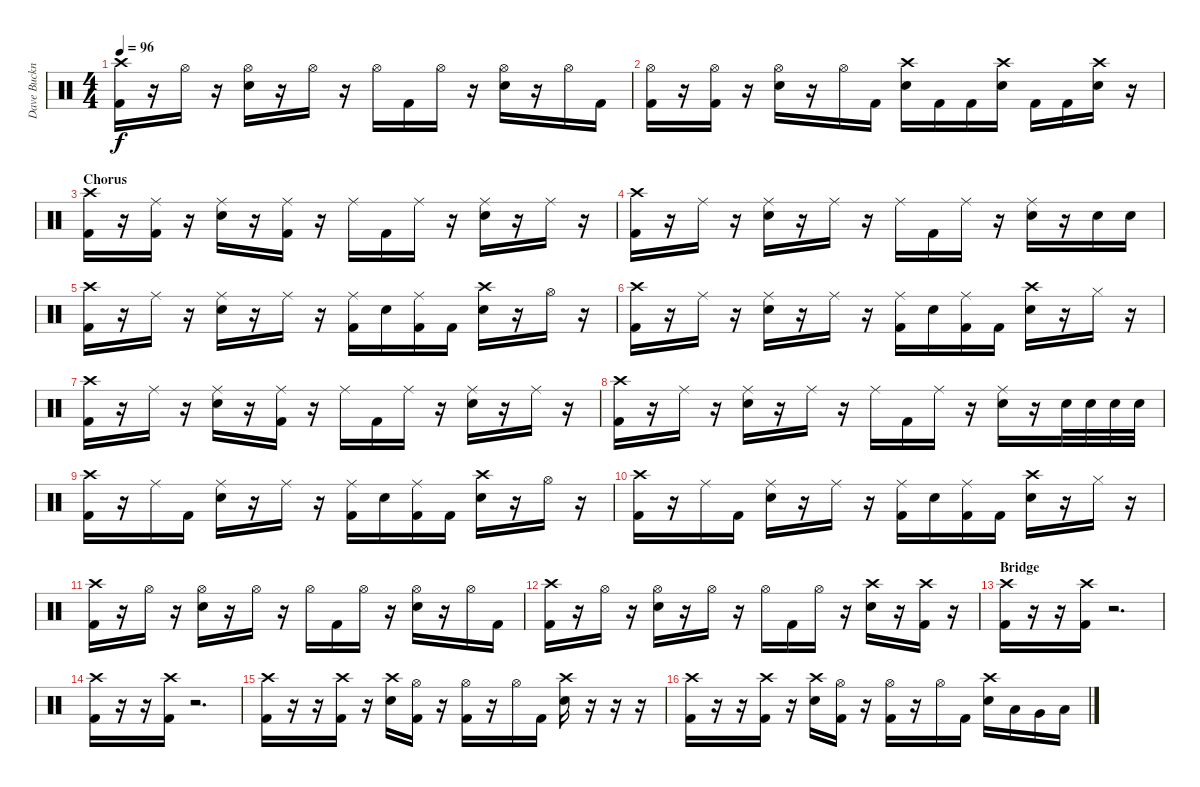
\track ("Dave Buckner" "Dave Buckn") {instrument percussion}
\staff {score}
\articulation defaults
\ts (4 4)
\tempo 96
\clef neutral
\ks c
("Crash high (hit)" "Kick (hit) 2").16{dy f} r.16 "Hi-Hat (open)".16 r.16 ("Hi-Hat (open)" "Snare (hit) 2").16 r.16 "Hi-Hat (open)".16 r.16 "Hi-Hat (open)".16 "Kick (hit) 2".16 "Hi-Hat (open)".16 r.16 ("Hi-Hat (open)" "Snare (hit) 2").16 r.16 "Hi-Hat (open)".16 "Kick (hit) 2".16 |
("Hi-Hat (open)" "Kick (hit) 2").16 r.16 ("Hi-Hat (open)" "Kick (hit) 2").16 r.16 ("Hi-Hat (open)" "Snare (hit) 2").16 r.16 "Hi-Hat (open)".16 "Kick (hit) 2".16 ("Crash high (hit)" "Snare (hit) 2").16 "Kick (hit) 2".16 "Kick (hit) 2".16 ("Crash high (hit)" "Snare (hit) 2").16 "Kick (hit) 2".16 "Kick (hit) 2".16 ("Crash high (hit)" "Snare (hit) 2").16 r.16 |
\section ("" "Chorus")
("Crash high (hit)" "Kick (hit) 2").16 r.16 ("Ride (middle)" "Kick (hit) 2").16 r.16 ("Ride (middle)" "Snare (hit) 2").16 r.16 ("Ride (middle)" "Kick (hit) 2").16 r.16 "Ride (middle)".16 "Kick (hit) 2".16 "Ride (middle)".16 r.16 ("Ride (middle)" "Snare (hit) 2").16 r.16 "Ride (middle)".16 r.16 |
("Crash high (hit)" "Kick (hit) 2").16 r.16 "Ride (middle)".16 r.16 ("Ride (middle)" "Snare (hit) 2").16 r.16 "Ride (middle)".16 r.16 "Ride (middle)".16 "Kick (hit) 2".16 "Ride (middle)".16 r.16 ("Ride (middle)" "Snare (hit) 2").16 r.16 "Snare (hit) 2".16 "Snare (hit) 2".16 |
("Crash high (hit)" "Kick (hit) 2").16 r.16 "Ride (middle)".16 r.16 ("Ride (middle)" "Snare (hit) 2").16 r.16 "Ride (middle)".16 r.16 ("Ride (middle)" "Kick (hit) 2").16 "Snare (hit) 2".16 ("Ride (middle)" "Kick (hit) 2").16 "Kick (hit) 2".16 ("Crash high (hit)" "Snare (hit) 2").16 r.16 "Hi-Hat (open)".16 r.16 |
("Crash high (hit)" "Kick (hit) 2").16 r.16 "Ride (middle)".16 r.16 ("Ride (middle)" "Snare (hit) 2").16 r.16 "Ride (middle)".16 r.16 ("Ride (middle)" "Kick (hit) 2").16 "Snare (hit) 2".16 ("Ride (middle)" "Kick (hit) 2").16 "Kick (hit) 2".16 ("Crash high (hit)" "Snare (hit) 2").16 r.16 "Hi-Hat (closed)".16 r.16 |
("Crash high (hit)" "Kick (hit) 2").16 r.16 "Ride (middle)".16 r.16 ("Ride (middle)" "Snare (hit) 2").16 r.16 ("Ride (middle)" "Kick (hit) 2").16 r.16 "Ride (middle)".16 "Kick (hit) 2".16 "Ride (middle)".16 r.16 ("Ride (middle)" "Snare (hit) 2").16 r.16 "Ride (middle)".16 r.16 |
("Crash high (hit)" "Kick (hit) 2").16 r.16 "Ride (middle)".16 r.16 ("Ride (middle)" "Snare (hit) 2").16 r.16 "Ride (middle)".16 r.16 "Ride (middle)".16 "Kick (hit) 2".16 "Ride (middle)".16 r.16 ("Ride (middle)" "Snare (hit) 2").16 r.16 "Snare (hit) 2".32 "Snare (hit) 2".32 "Snare (hit) 2".32 "Snare (hit) 2".32 |
("Crash high (hit)" "Kick (hit) 2").16 r.16 "Ride (middle)".16 "Kick (hit) 2".16 ("Ride (middle)" "Snare (hit) 2").16 r.16 "Ride (middle)".16 r.16 ("Ride (middle)" "Kick (hit) 2").16 "Snare (hit) 2".16 ("Ride (middle)" "Kick (hit) 2").16 "Kick (hit) 2".16 ("Crash high (hit)" "Snare (hit) 2").16 r.16 "Hi-Hat (open)".16 r.16 |
("Crash high (hit)" "Kick (hit) 2").16 r.16 "Ride (middle)".16 "Kick (hit) 2".16 ("Ride (middle)" "Snare (hit) 2").16 r.16 "Ride (middle)".16 r.16 ("Ride (middle)" "Kick (hit) 2").16 "Snare (hit) 2".16 ("Ride (middle)" "Kick (hit) 2").16 "Kick (hit) 2".16 ("Crash high (hit)" "Snare (hit) 2").16 r.16 "Hi-Hat (closed)".16 r.16 |
("Crash high (hit)" "Kick (hit) 2").16 r.16 "Hi-Hat (open)".16 r.16 ("Hi-Hat (open)" "Snare (hit) 2").16 r.16 "Hi-Hat (open)".16 r.16 "Hi-Hat (open)".16 "Kick (hit) 2".16 "Hi-Hat (open)".16 r.16 ("Hi-Hat (open)" "Snare (hit) 2").16 r.16 "Hi-Hat (open)".16 "Kick (hit) 2".16 |
("Crash high (hit)" "Kick (hit) 2").16 r.16 "Hi-Hat (open)".16 r.16 ("Hi-Hat (open)" "Snare (hit) 2").16 r.16 "Hi-Hat (open)".16 r.16 "Hi-Hat (open)".16 "Kick (hit) 2".16 "Hi-Hat (open)".16 r.16 ("Crash high (hit)" "Snare (hit) 2").16 r.16 ("Crash high (hit)" "Kick (hit) 2").16 r.16 |
\section ("" "Bridge")
("Crash high (hit)" "Kick (hit) 2").16 r.16 r.16 ("Crash high (hit)" "Kick (hit) 2").16 r.2{d} |
("Crash high (hit)" "Kick (hit) 2").16 r.16 r.16 ("Crash high (hit)" "Kick (hit) 2").16 r.2{d} |
("Crash high (hit)" "Kick (hit) 2").16 r.16 r.16 ("Crash high (hit)" "Kick (hit) 2").16 r.16 ("Crash high (hit)" "Snare (hit) 2").16 ("Hi-Hat (open)" "Kick (hit) 2").16 r.16 ("Hi-Hat (open)" "Kick (hit) 2").16 r.16 "Hi-Hat (open)".16 "Kick (hit) 2".16 ("Crash high (hit)" "Snare (hit) 2").16 r.16 r.16 r.16 |
("Crash high (hit)" "Kick (hit) 2").16 r.16 r.16 ("Crash high (hit)" "Kick (hit) 2").16 r.16 ("Crash high (hit)" "Snare (hit) 2").16 ("Hi-Hat (open)" "Kick (hit) 2").16 r.16 ("Hi-Hat (open)" "Kick (hit) 2").16 r.16 "Hi-Hat (open)".16 "Kick (hit) 2".16 ("Crash high (hit)" "Snare (hit) 2").16 "Low Tom (hit)".16 "Very Low Tom (hit)".16 "Low Floor Tom (hit)".16
